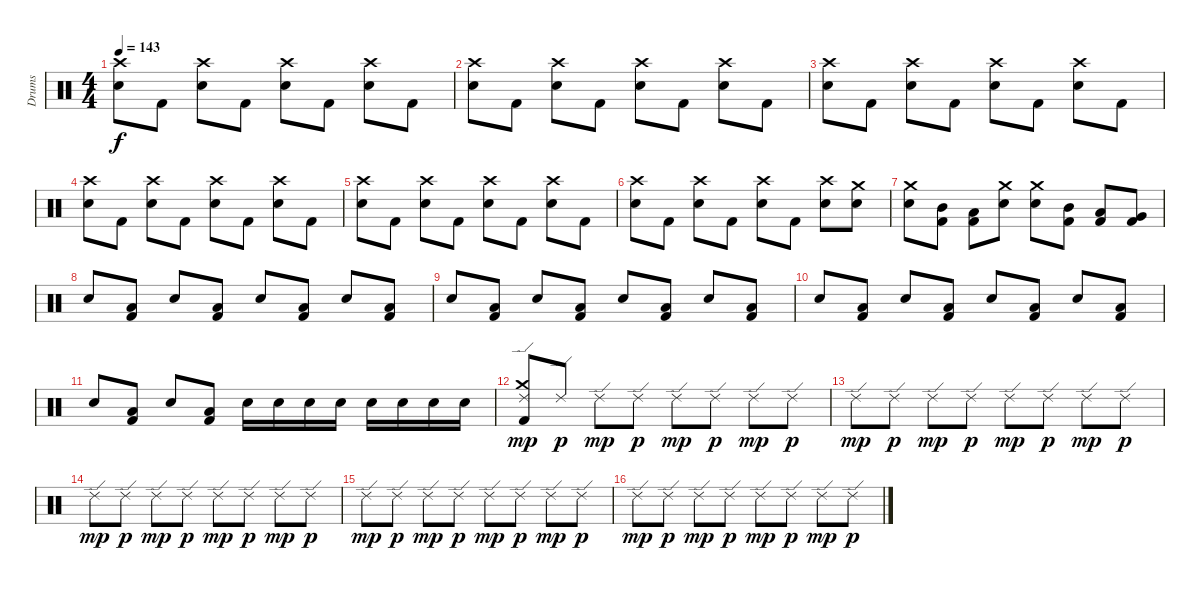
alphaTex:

\track ("Drums" "Drums") {instrument percussion}
\staff {score}
\articulation defaults
\ts (4 4)
\tempo 143
\clef neutral
\ks c
("Crash high (hit)" "Electric Snare (hit)").8{dy f} "Kick (hit) 2".8 ("Crash high (hit)" "Electric Snare (hit)").8 "Kick (hit) 2".8 ("Crash high (hit)" "Electric Snare (hit)").8 "Kick (hit) 2".8 ("Crash high (hit)" "Electric Snare (hit)").8 "Kick (hit) 2".8 |
("Crash high (hit)" "Electric Snare (hit)").8 "Kick (hit) 2".8 ("Crash high (hit)" "Electric Snare (hit)").8 "Kick (hit) 2".8 ("Crash high (hit)" "Electric Snare (hit)").8 "Kick (hit) 2".8 ("Crash high (hit)" "Electric Snare (hit)").8 "Kick (hit) 2".8 |
("Crash high (hit)" "Electric Snare (hit)").8 "Kick (hit) 2".8 ("Crash high (hit)" "Electric Snare (hit)").8 "Kick (hit) 2".8 ("Crash high (hit)" "Electric Snare (hit)").8 "Kick (hit) 2".8 ("Crash high (hit)" "Electric Snare (hit)").8 "Kick (hit) 2".8 |
("Crash high (hit)" "Electric Snare (hit)").8 "Kick (hit) 2".8 ("Crash high (hit)" "Electric Snare (hit)").8 "Kick (hit) 2".8 ("Crash high (hit)" "Electric Snare (hit)").8 "Kick (hit) 2".8 ("Crash high (hit)" "Electric Snare (hit)").8 "Kick (hit) 2".8 |
("Crash high (hit)" "Electric Snare (hit)").8 "Kick (hit) 2".8 ("Crash high (hit)" "Electric Snare (hit)").8 "Kick (hit) 2".8 ("Crash high (hit)" "Electric Snare (hit)").8 "Kick (hit) 2".8 ("Crash high (hit)" "Electric Snare (hit)").8 "Kick (hit) 2".8 |
("Crash high (hit)" "Electric Snare (hit)").8 "Kick (hit) 2".8 ("Crash high (hit)" "Electric Snare (hit)").8 "Kick (hit) 2".8 ("Crash high (hit)" "Electric Snare (hit)").8 "Kick (hit) 2".8 ("Crash high (hit)" "Electric Snare (hit)").8 ("Crash medium (hit)" "Electric Snare (hit)").8 |
("Crash medium (hit)" "Electric Snare (hit)").8 ("Mid Tom (hit)" "Kick (hit) 2").8 ("Low Tom (hit)" "Kick (hit) 2").8 ("Crash medium (hit)" "Electric Snare (hit)").8 ("Crash medium (hit)" "Electric Snare (hit)").8 ("Mid Tom (hit)" "Kick (hit) 2").8 ("Low Tom (hit)" "Kick (hit) 2").8 ("Very Low Tom (hit)" "Kick (hit) 2").8 |
"Electric Snare (hit)".8 ("Low Tom (hit)" "Kick (hit) 2").8 "Electric Snare (hit)".8 ("Low Tom (hit)" "Kick (hit) 2").8 "Electric Snare (hit)".8 ("Low Tom (hit)" "Kick (hit) 2").8 "Electric Snare (hit)".8 ("Low Tom (hit)" "Kick (hit) 2").8 |
"Electric Snare (hit)".8 ("Low Tom (hit)" "Kick (hit) 2").8 "Electric Snare (hit)".8 ("Low Tom (hit)" "Kick (hit) 2").8 "Electric Snare (hit)".8 ("Low Tom (hit)" "Kick (hit) 2").8 "Electric Snare (hit)".8 ("Low Tom (hit)" "Kick (hit) 2").8 |
"Electric Snare (hit)".8 ("Low Tom (hit)" "Kick (hit) 2").8 "Electric Snare (hit)".8 ("Low Tom (hit)" "Kick (hit) 2").8 "Electric Snare (hit)".8 ("Low Tom (hit)" "Kick (hit) 2").8 "Electric Snare (hit)".8 ("Low Tom (hit)" "Kick (hit) 2").8 |
"Electric Snare (hit)".8 ("Low Tom (hit)" "Kick (hit) 2").8 "Electric Snare (hit)".8 ("Low Tom (hit)" "Kick (hit) 2").8 "Electric Snare (hit)".16 "Electric Snare (hit)".16 "Electric Snare (hit)".16 "Electric Snare (hit)".16 "Electric Snare (hit)".16 "Electric Snare (hit)".16 "Electric Snare (hit)".16 "Electric Snare (hit)".16 |
("Ride (edge) 2" "Crash medium (hit)" "Kick (hit) 2").8{dy mp} "Ride (edge) 2".8{dy p} "Ride (edge) 2".8{dy mp} "Ride (edge) 2".8{dy p} "Ride (edge) 2".8{dy mp} "Ride (edge) 2".8{dy p} "Ride (edge) 2".8{dy mp} "Ride (edge) 2".8{dy p} |
"Ride (edge) 2".8{dy mp} "Ride (edge) 2".8{dy p} "Ride (edge) 2".8{dy mp} "Ride (edge) 2".8{dy p} "Ride (edge) 2".8{dy mp} "Ride (edge) 2".8{dy p} "Ride (edge) 2".8{dy mp} "Ride (edge) 2".8{dy p} |
"Ride (edge) 2".8{dy mp} "Ride (edge) 2".8{dy p} "Ride (edge) 2".8{dy mp} "Ride (edge) 2".8{dy p} "Ride (edge) 2".8{dy mp} "Ride (edge) 2".8{dy p} "Ride (edge) 2".8{dy mp} "Ride (edge) 2".8{dy p} |
"Ride (edge) 2".8{dy mp} "Ride (edge) 2".8{dy p} "Ride (edge) 2".8{dy mp} "Ride (edge) 2".8{dy p} "Ride (edge) 2".8{dy mp} "Ride (edge) 2".8{dy p} "Ride (edge) 2".8{dy mp} "Ride (edge) 2".8{dy p} |
"Ride (edge) 2".8{dy mp} "Ride (edge) 2".8{dy p} "Ride (edge) 2".8{dy mp} "Ride (edge) 2".8{dy p} "Ride (edge) 2".8{dy mp} "Ride (edge) 2".8{dy p} "Ride (edge) 2".8{dy mp} "Ride (edge) 2".8{dy p}
